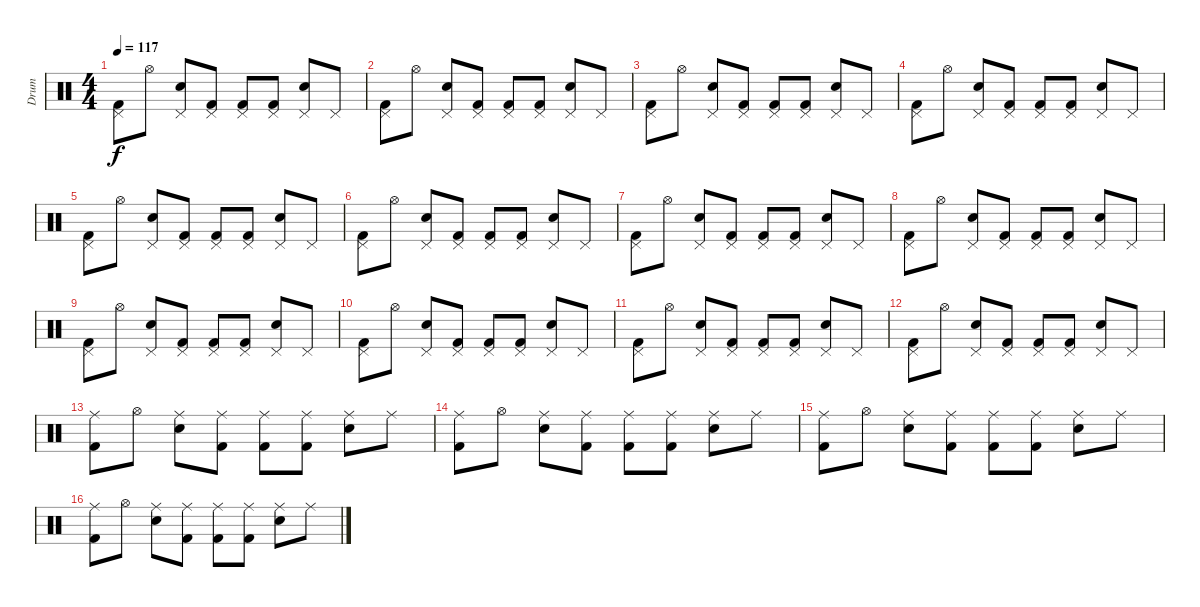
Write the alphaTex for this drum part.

\track ("Drum" "Drum") {instrument percussion}
\staff {score}
\articulation defaults
\ts (4 4)
\tempo 117
\clef neutral
\ks c
("Pedal Hi-Hat (hit)" "Kick (hit) 2").8{dy f} "Hi-Hat (open)".8 ("Pedal Hi-Hat (hit)" "Snare (hit) 2").8 ("Pedal Hi-Hat (hit)" "Kick (hit) 2").8 ("Pedal Hi-Hat (hit)" "Kick (hit) 2").8 ("Pedal Hi-Hat (hit)" "Kick (hit) 2").8 ("Pedal Hi-Hat (hit)" "Snare (hit) 2").8 "Pedal Hi-Hat (hit)".8 |
("Pedal Hi-Hat (hit)" "Kick (hit) 2").8 "Hi-Hat (open)".8 ("Pedal Hi-Hat (hit)" "Snare (hit) 2").8 ("Pedal Hi-Hat (hit)" "Kick (hit) 2").8 ("Pedal Hi-Hat (hit)" "Kick (hit) 2").8 ("Pedal Hi-Hat (hit)" "Kick (hit) 2").8 ("Pedal Hi-Hat (hit)" "Snare (hit) 2").8 "Pedal Hi-Hat (hit)".8 |
("Pedal Hi-Hat (hit)" "Kick (hit) 2").8 "Hi-Hat (open)".8 ("Pedal Hi-Hat (hit)" "Snare (hit) 2").8 ("Pedal Hi-Hat (hit)" "Kick (hit) 2").8 ("Pedal Hi-Hat (hit)" "Kick (hit) 2").8 ("Pedal Hi-Hat (hit)" "Kick (hit) 2").8 ("Pedal Hi-Hat (hit)" "Snare (hit) 2").8 "Pedal Hi-Hat (hit)".8 |
("Pedal Hi-Hat (hit)" "Kick (hit) 2").8 "Hi-Hat (open)".8 ("Pedal Hi-Hat (hit)" "Snare (hit) 2").8 ("Pedal Hi-Hat (hit)" "Kick (hit) 2").8 ("Pedal Hi-Hat (hit)" "Kick (hit) 2").8 ("Pedal Hi-Hat (hit)" "Kick (hit) 2").8 ("Pedal Hi-Hat (hit)" "Snare (hit) 2").8 "Pedal Hi-Hat (hit)".8 |
("Pedal Hi-Hat (hit)" "Kick (hit) 2").8 "Hi-Hat (open)".8 ("Pedal Hi-Hat (hit)" "Snare (hit) 2").8 ("Pedal Hi-Hat (hit)" "Kick (hit) 2").8 ("Pedal Hi-Hat (hit)" "Kick (hit) 2").8 ("Pedal Hi-Hat (hit)" "Kick (hit) 2").8 ("Pedal Hi-Hat (hit)" "Snare (hit) 2").8 "Pedal Hi-Hat (hit)".8 |
("Pedal Hi-Hat (hit)" "Kick (hit) 2").8 "Hi-Hat (open)".8 ("Pedal Hi-Hat (hit)" "Snare (hit) 2").8 ("Pedal Hi-Hat (hit)" "Kick (hit) 2").8 ("Pedal Hi-Hat (hit)" "Kick (hit) 2").8 ("Pedal Hi-Hat (hit)" "Kick (hit) 2").8 ("Pedal Hi-Hat (hit)" "Snare (hit) 2").8 "Pedal Hi-Hat (hit)".8 |
("Pedal Hi-Hat (hit)" "Kick (hit) 2").8 "Hi-Hat (open)".8 ("Pedal Hi-Hat (hit)" "Snare (hit) 2").8 ("Pedal Hi-Hat (hit)" "Kick (hit) 2").8 ("Pedal Hi-Hat (hit)" "Kick (hit) 2").8 ("Pedal Hi-Hat (hit)" "Kick (hit) 2").8 ("Pedal Hi-Hat (hit)" "Snare (hit) 2").8 "Pedal Hi-Hat (hit)".8 |
("Pedal Hi-Hat (hit)" "Kick (hit) 2").8 "Hi-Hat (open)".8 ("Pedal Hi-Hat (hit)" "Snare (hit) 2").8 ("Pedal Hi-Hat (hit)" "Kick (hit) 2").8 ("Pedal Hi-Hat (hit)" "Kick (hit) 2").8 ("Pedal Hi-Hat (hit)" "Kick (hit) 2").8 ("Pedal Hi-Hat (hit)" "Snare (hit) 2").8 "Pedal Hi-Hat (hit)".8 |
("Pedal Hi-Hat (hit)" "Kick (hit) 2").8 "Hi-Hat (open)".8 ("Pedal Hi-Hat (hit)" "Snare (hit) 2").8 ("Pedal Hi-Hat (hit)" "Kick (hit) 2").8 ("Pedal Hi-Hat (hit)" "Kick (hit) 2").8 ("Pedal Hi-Hat (hit)" "Kick (hit) 2").8 ("Pedal Hi-Hat (hit)" "Snare (hit) 2").8 "Pedal Hi-Hat (hit)".8 |
("Pedal Hi-Hat (hit)" "Kick (hit) 2").8 "Hi-Hat (open)".8 ("Pedal Hi-Hat (hit)" "Snare (hit) 2").8 ("Pedal Hi-Hat (hit)" "Kick (hit) 2").8 ("Pedal Hi-Hat (hit)" "Kick (hit) 2").8 ("Pedal Hi-Hat (hit)" "Kick (hit) 2").8 ("Pedal Hi-Hat (hit)" "Snare (hit) 2").8 "Pedal Hi-Hat (hit)".8 |
("Pedal Hi-Hat (hit)" "Kick (hit) 2").8 "Hi-Hat (open)".8 ("Pedal Hi-Hat (hit)" "Snare (hit) 2").8 ("Pedal Hi-Hat (hit)" "Kick (hit) 2").8 ("Pedal Hi-Hat (hit)" "Kick (hit) 2").8 ("Pedal Hi-Hat (hit)" "Kick (hit) 2").8 ("Pedal Hi-Hat (hit)" "Snare (hit) 2").8 "Pedal Hi-Hat (hit)".8 |
("Pedal Hi-Hat (hit)" "Kick (hit) 2").8 "Hi-Hat (open)".8 ("Pedal Hi-Hat (hit)" "Snare (hit) 2").8 ("Pedal Hi-Hat (hit)" "Kick (hit) 2").8 ("Pedal Hi-Hat (hit)" "Kick (hit) 2").8 ("Pedal Hi-Hat (hit)" "Kick (hit) 2").8 ("Pedal Hi-Hat (hit)" "Snare (hit) 2").8 "Pedal Hi-Hat (hit)".8 |
("Ride (middle)" "Kick (hit) 2").8 "Hi-Hat (open)".8 ("Ride (middle)" "Snare (hit) 2").8 ("Ride (middle)" "Kick (hit) 2").8 ("Ride (middle)" "Kick (hit) 2").8 ("Ride (middle)" "Kick (hit) 2").8 ("Ride (middle)" "Snare (hit) 2").8 "Ride (middle)".8 |
("Ride (middle)" "Kick (hit) 2").8 "Hi-Hat (open)".8 ("Ride (middle)" "Snare (hit) 2").8 ("Ride (middle)" "Kick (hit) 2").8 ("Ride (middle)" "Kick (hit) 2").8 ("Ride (middle)" "Kick (hit) 2").8 ("Ride (middle)" "Snare (hit) 2").8 "Ride (middle)".8 |
("Ride (middle)" "Kick (hit) 2").8 "Hi-Hat (open)".8 ("Ride (middle)" "Snare (hit) 2").8 ("Ride (middle)" "Kick (hit) 2").8 ("Ride (middle)" "Kick (hit) 2").8 ("Ride (middle)" "Kick (hit) 2").8 ("Ride (middle)" "Snare (hit) 2").8 "Ride (middle)".8 |
("Ride (middle)" "Kick (hit) 2").8 "Hi-Hat (open)".8 ("Ride (middle)" "Snare (hit) 2").8 ("Ride (middle)" "Kick (hit) 2").8 ("Ride (middle)" "Kick (hit) 2").8 ("Ride (middle)" "Kick (hit) 2").8 ("Ride (middle)" "Snare (hit) 2").8 "Ride (middle)".8
